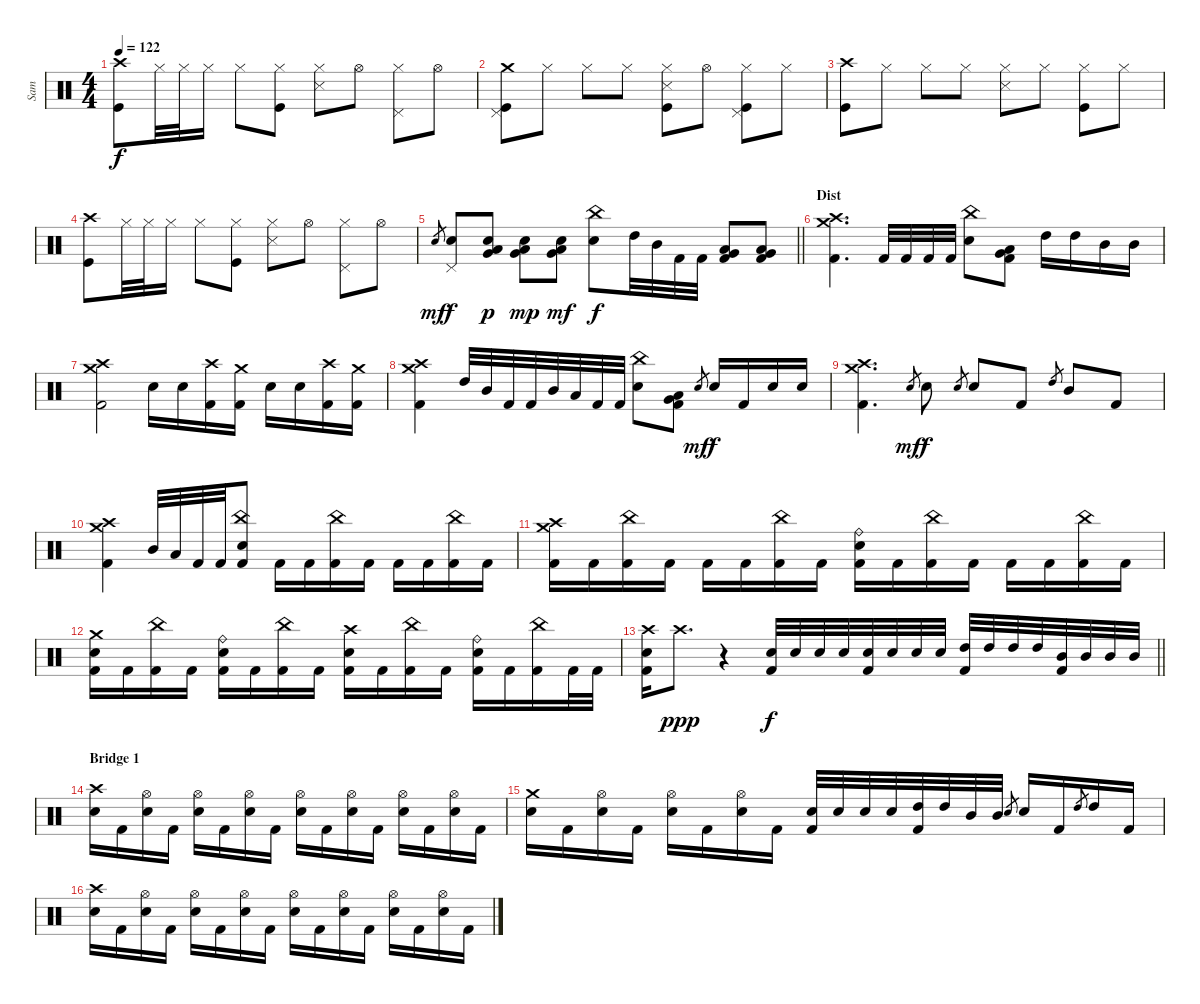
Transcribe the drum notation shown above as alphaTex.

\track ("Sam" "Sam") {solo instrument percussion}
\staff {score}
\articulation defaults
\ts (4 4)
\tempo 122
\clef neutral
\ks c
("Crash high (hit)" "Kick (hit)").8{dy f} "Hi-Hat (closed)".32 "Hi-Hat (closed)".32 "Hi-Hat (closed)".16 "Hi-Hat (closed)".8 ("Hi-Hat (closed)" "Kick (hit)").8 ("Hi-Hat (closed)" "Snare (side stick) 3").8 "Hi-Hat (open)".8 ("Hi-Hat (closed)" "Pedal Hi-Hat (hit)").8 "Hi-Hat (open)".8 |
("Crash medium (hit)" "Pedal Hi-Hat (hit)" "Kick (hit)").8 "Hi-Hat (closed)".8 "Hi-Hat (closed)".8 "Hi-Hat (closed)".8 ("Hi-Hat (closed)" "Snare (side stick) 3" "Kick (hit)").8 "Hi-Hat (open)".8 ("Hi-Hat (closed)" "Pedal Hi-Hat (hit)" "Kick (hit)").8 "Hi-Hat (closed)".8 |
("Crash high (hit)" "Kick (hit)").8 "Hi-Hat (closed)".8 "Hi-Hat (closed)".8 "Hi-Hat (closed)".8 ("Hi-Hat (closed)" "Snare (side stick) 3").8 "Hi-Hat (closed)".8 ("Hi-Hat (closed)" "Kick (hit)").8 "Hi-Hat (closed)".8 |
("Crash high (hit)" "Kick (hit)").8 "Hi-Hat (closed)".32 "Hi-Hat (closed)".32 "Hi-Hat (closed)".16 "Hi-Hat (closed)".8 ("Hi-Hat (closed)" "Kick (hit)").8 ("Hi-Hat (closed)" "Snare (side stick) 3").8 "Hi-Hat (open)".8 ("Hi-Hat (closed)" "Pedal Hi-Hat (hit)").8 "Hi-Hat (open)".8 |
\barLineRight lightlight "Electric Snare (hit)".8{gr dy mf}
("Electric Snare (hit)" "Pedal Hi-Hat (hit)").8{dy f} ("Very Low Tom (hit)" "Low Floor Tom (hit)" "Electric Snare (hit)").8{dy p} ("Very Low Tom (hit)" "Low Floor Tom (hit)" "Electric Snare (hit)").8{dy mp} ("Very Low Tom (hit)" "Low Floor Tom (hit)" "Electric Snare (hit)").8{dy mf} ("China (hit)" "Electric Snare (hit)").8{dy f} "High Tom (hit)".32 "Mid Tom (hit)".32 "Kick (hit) 2".32 "Kick (hit) 2".32 ("Very Low Tom (hit)" "Low Floor Tom (hit)" "Kick (hit) 2").8 ("Very Low Tom (hit)" "Low Floor Tom (hit)" "Kick (hit) 2").8 |
\section ("" "Dist")
("Crash high (hit)" "Crash medium (hit)" "Kick (hit) 2").4{d} "Kick (hit) 2".32 "Kick (hit) 2".32 "Kick (hit) 2".32 "Kick (hit) 2".32 ("China (hit)" "Electric Snare (hit)").8 ("Very Low Tom (hit)" "Low Floor Tom (hit)" "Kick (hit) 2").8 "High Tom (hit)".16 "High Tom (hit)".16 "Mid Tom (hit)".16 "Mid Tom (hit)".16 |
("Crash high (hit)" "Crash medium (hit)" "Kick (hit) 2").2 "Electric Snare (hit)".16 "Electric Snare (hit)".16 ("Crash high (hit)" "Kick (hit) 2").16 ("Crash medium (hit)" "Kick (hit) 2").16 "Electric Snare (hit)".16 "Electric Snare (hit)".16 ("Crash high (hit)" "Kick (hit) 2").16 ("Crash medium (hit)" "Kick (hit) 2").16 |
("Crash high (hit)" "Crash medium (hit)" "Kick (hit) 2").4 "High Tom (hit)".32 "Mid Tom (hit)".32 "Kick (hit) 2".32 "Kick (hit) 2".32 "Mid Tom (hit)".32 "Low Tom (hit)".32 "Kick (hit) 2".32 "Kick (hit) 2".32 ("China (hit)" "Electric Snare (hit)").8 ("Very Low Tom (hit)" "Low Floor Tom (hit)" "Kick (hit) 2").8 "Electric Snare (hit)".8{gr dy mf} "Electric Snare (hit)".16{dy f} "Kick (hit) 2".16 "Electric Snare (hit)".16 "Electric Snare (hit)".16 |
("Crash high (hit)" "Crash medium (hit)" "Kick (hit) 2").4{d} "Electric Snare (hit)".8{gr dy mf} "Electric Snare (hit)".8{dy f} "Electric Snare (hit)".8{gr} "Electric Snare (hit)".8 "Kick (hit) 2".8 "High Tom (hit)".8{gr} "Mid Tom (hit)".8 "Kick (hit) 2".8 |
("Crash high (hit)" "Crash medium (hit)" "Kick (hit) 2").4 "Mid Tom (hit)".32 "Low Tom (hit)".32 "Kick (hit) 2".32 "Kick (hit) 2".32 ("China (hit)" "Electric Snare (hit)" "Kick (hit) 2").8 "Kick (hit) 2".16 "Kick (hit) 2".16 ("China (hit)" "Kick (hit) 2").16 "Kick (hit) 2".16 "Kick (hit) 2".16 "Kick (hit) 2".16 ("China (hit)" "Kick (hit) 2").16 "Kick (hit) 2".16 |
("Crash high (hit)" "Crash medium (hit)" "Kick (hit) 2").16 "Kick (hit) 2".16 ("China (hit)" "Kick (hit) 2").16 "Kick (hit) 2".16 "Kick (hit) 2".16 "Kick (hit) 2".16 ("China (hit)" "Kick (hit) 2").16 "Kick (hit) 2".16 ("Ride (bell)" "Electric Snare (hit)" "Kick (hit) 2").16 "Kick (hit) 2".16 ("China (hit)" "Kick (hit) 2").16 "Kick (hit) 2".16 "Kick (hit) 2".16 "Kick (hit) 2".16 ("China (hit)" "Kick (hit) 2").16 "Kick (hit) 2".16 |
("Crash medium (hit)" "Electric Snare (hit)" "Kick (hit) 2").16 "Kick (hit) 2".16 ("China (hit)" "Kick (hit) 2").16 "Kick (hit) 2".16 ("Ride (bell)" "Electric Snare (hit)" "Kick (hit) 2").16 "Kick (hit) 2".16 ("China (hit)" "Kick (hit) 2").16 "Kick (hit) 2".16 ("Crash high (hit)" "Electric Snare (hit)" "Kick (hit) 2").16 "Kick (hit) 2".16 ("China (hit)" "Kick (hit) 2").16 "Kick (hit) 2".16 ("Ride (bell)" "Electric Snare (hit)" "Kick (hit) 2").16 "Kick (hit) 2".16 ("China (hit)" "Kick (hit) 2").16 "Kick (hit) 2".32 "Kick (hit) 2".32 |
\barLineRight lightlight
("Crash high (hit)" "Electric Snare (hit)" "Kick (hit) 2").16 "Crash high (hit)".8{d dy ppp} r.4 ("Electric Snare (hit)" "Kick (hit) 2").32{dy f} "Electric Snare (hit)".32 "Electric Snare (hit)".32 "Electric Snare (hit)".32 ("Electric Snare (hit)" "Kick (hit) 2").32 "Electric Snare (hit)".32 "Electric Snare (hit)".32 "Electric Snare (hit)".32 ("High Tom (hit)" "Kick (hit) 2").32 "High Tom (hit)".32 "High Tom (hit)".32 "High Tom (hit)".32 ("Mid Tom (hit)" "Kick (hit) 2").32 "Mid Tom (hit)".32 "Mid Tom (hit)".32 "Mid Tom (hit)".32 |
\section ("" "Bridge 1")
("Crash high (hit)" "Electric Snare (hit)").16 "Kick (hit) 2".16 ("Hi-Hat (open)" "Electric Snare (hit)").16 "Kick (hit) 2".16 ("Hi-Hat (open)" "Electric Snare (hit)").16 "Kick (hit) 2".16 ("Hi-Hat (open)" "Electric Snare (hit)").16 "Kick (hit) 2".16 ("Hi-Hat (open)" "Electric Snare (hit)").16 "Kick (hit) 2".16 ("Hi-Hat (open)" "Electric Snare (hit)").16 "Kick (hit) 2".16 ("Hi-Hat (open)" "Electric Snare (hit)").16 "Kick (hit) 2".16 ("Hi-Hat (open)" "Electric Snare (hit)").16 "Kick (hit) 2".16 |
("Crash medium (hit)" "Electric Snare (hit)").16 "Kick (hit) 2".16 ("Hi-Hat (open)" "Electric Snare (hit)").16 "Kick (hit) 2".16 ("Hi-Hat (open)" "Electric Snare (hit)").16 "Kick (hit) 2".16 ("Hi-Hat (open)" "Electric Snare (hit)").16 "Kick (hit) 2".16 ("Electric Snare (hit)" "Kick (hit) 2").32 "Electric Snare (hit)".32 "Electric Snare (hit)".32 "Electric Snare (hit)".32 ("High Tom (hit)" "Kick (hit) 2").32 "High Tom (hit)".32 "Mid Tom (hit)".32 "Mid Tom (hit)".32 "Electric Snare (hit)".8{gr} "Electric Snare (hit)".16 "Kick (hit) 2".16 "High Tom (hit)".8{gr} "High Tom (hit)".16 "Kick (hit) 2".16 |
("Crash high (hit)" "Electric Snare (hit)").16 "Kick (hit) 2".16 ("Hi-Hat (open)" "Electric Snare (hit)").16 "Kick (hit) 2".16 ("Hi-Hat (open)" "Electric Snare (hit)").16 "Kick (hit) 2".16 ("Hi-Hat (open)" "Electric Snare (hit)").16 "Kick (hit) 2".16 ("Hi-Hat (open)" "Electric Snare (hit)").16 "Kick (hit) 2".16 ("Hi-Hat (open)" "Electric Snare (hit)").16 "Kick (hit) 2".16 ("Hi-Hat (open)" "Electric Snare (hit)").16 "Kick (hit) 2".16 ("Hi-Hat (open)" "Electric Snare (hit)").16 "Kick (hit) 2".16
